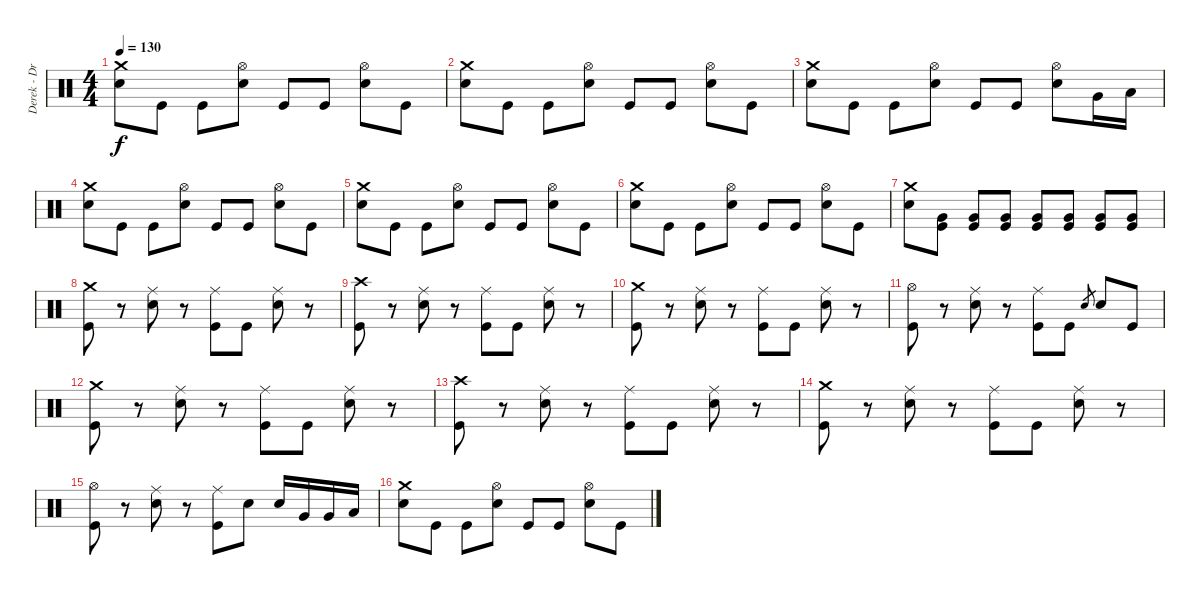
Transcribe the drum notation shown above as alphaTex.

\track ("Derek - Drums" "Derek - Dr") {instrument percussion}
\staff {score}
\articulation defaults
\ts (4 4)
\tempo 130
\clef neutral
\ks c
("Crash medium (hit)" "Electric Snare (hit)").8{dy f} "Kick (hit)".8 "Kick (hit)".8 ("Hi-Hat (open)" "Electric Snare (hit)").8 "Kick (hit)".8 "Kick (hit)".8 ("Hi-Hat (open)" "Electric Snare (hit)").8 "Kick (hit)".8 |
("Crash medium (hit)" "Electric Snare (hit)").8 "Kick (hit)".8 "Kick (hit)".8 ("Hi-Hat (open)" "Electric Snare (hit)").8 "Kick (hit)".8 "Kick (hit)".8 ("Hi-Hat (open)" "Electric Snare (hit)").8 "Kick (hit)".8 |
("Crash medium (hit)" "Electric Snare (hit)").8 "Kick (hit)".8 "Kick (hit)".8 ("Hi-Hat (open)" "Electric Snare (hit)").8 "Kick (hit)".8 "Kick (hit)".8 ("Hi-Hat (open)" "Electric Snare (hit)").8 "Very Low Tom (hit)".16 "Low Floor Tom (hit)".16 |
("Crash medium (hit)" "Electric Snare (hit)").8 "Kick (hit)".8 "Kick (hit)".8 ("Hi-Hat (open)" "Electric Snare (hit)").8 "Kick (hit)".8 "Kick (hit)".8 ("Hi-Hat (open)" "Electric Snare (hit)").8 "Kick (hit)".8 |
("Crash medium (hit)" "Electric Snare (hit)").8 "Kick (hit)".8 "Kick (hit)".8 ("Hi-Hat (open)" "Electric Snare (hit)").8 "Kick (hit)".8 "Kick (hit)".8 ("Hi-Hat (open)" "Electric Snare (hit)").8 "Kick (hit)".8 |
("Crash medium (hit)" "Electric Snare (hit)").8 "Kick (hit)".8 "Kick (hit)".8 ("Hi-Hat (open)" "Electric Snare (hit)").8 "Kick (hit)".8 "Kick (hit)".8 ("Hi-Hat (open)" "Electric Snare (hit)").8 "Kick (hit)".8 |
("Crash medium (hit)" "Electric Snare (hit)").8 ("Very Low Tom (hit)" "Kick (hit)").8 ("Very Low Tom (hit)" "Kick (hit)").8 ("Very Low Tom (hit)" "Kick (hit)").8 ("Very Low Tom (hit)" "Kick (hit)").8 ("Very Low Tom (hit)" "Kick (hit)").8 ("Very Low Tom (hit)" "Kick (hit)").8 ("Very Low Tom (hit)" "Kick (hit)").8 |
("Crash medium (hit)" "Kick (hit)").8 r.8 ("Ride (middle)" "Electric Snare (hit)").8 r.8 ("Ride (middle)" "Kick (hit)").8 "Kick (hit)".8 ("Ride (middle)" "Electric Snare (hit)").8 r.8 |
("Crash high (hit)" "Kick (hit)").8 r.8 ("Ride (middle)" "Electric Snare (hit)").8 r.8 ("Ride (middle)" "Kick (hit)").8 "Kick (hit)".8 ("Ride (middle)" "Electric Snare (hit)").8 r.8 |
("Crash medium (hit)" "Kick (hit)").8 r.8 ("Ride (middle)" "Electric Snare (hit)").8 r.8 ("Ride (middle)" "Kick (hit)").8 "Kick (hit)".8 ("Ride (middle)" "Electric Snare (hit)").8 r.8 |
("Hi-Hat (open)" "Kick (hit)").8 r.8 ("Ride (middle)" "Electric Snare (hit)").8 r.8 ("Ride (middle)" "Kick (hit)").8 "Kick (hit)".8 "Electric Snare (hit)".8{gr} "Electric Snare (hit)".8 "Kick (hit)".8 |
("Crash medium (hit)" "Kick (hit)").8 r.8 ("Ride (middle)" "Electric Snare (hit)").8 r.8 ("Ride (middle)" "Kick (hit)").8 "Kick (hit)".8 ("Ride (middle)" "Electric Snare (hit)").8 r.8 |
("Crash high (hit)" "Kick (hit)").8 r.8 ("Ride (middle)" "Electric Snare (hit)").8 r.8 ("Ride (middle)" "Kick (hit)").8 "Kick (hit)".8 ("Ride (middle)" "Electric Snare (hit)").8 r.8 |
("Crash medium (hit)" "Kick (hit)").8 r.8 ("Ride (middle)" "Electric Snare (hit)").8 r.8 ("Ride (middle)" "Kick (hit)").8 "Kick (hit)".8 ("Ride (middle)" "Electric Snare (hit)").8 r.8 |
("Hi-Hat (open)" "Kick (hit)").8 r.8 ("Ride (middle)" "Electric Snare (hit)").8 r.8 ("Ride (middle)" "Kick (hit)").8 "Electric Snare (hit)".8 "Electric Snare (hit)".16 "Very Low Tom (hit)".16 "Very Low Tom (hit)".16 "Low Floor Tom (hit)".16 |
("Crash medium (hit)" "Electric Snare (hit)").8 "Kick (hit)".8 "Kick (hit)".8 ("Hi-Hat (open)" "Electric Snare (hit)").8 "Kick (hit)".8 "Kick (hit)".8 ("Hi-Hat (open)" "Electric Snare (hit)").8 "Kick (hit)".8
